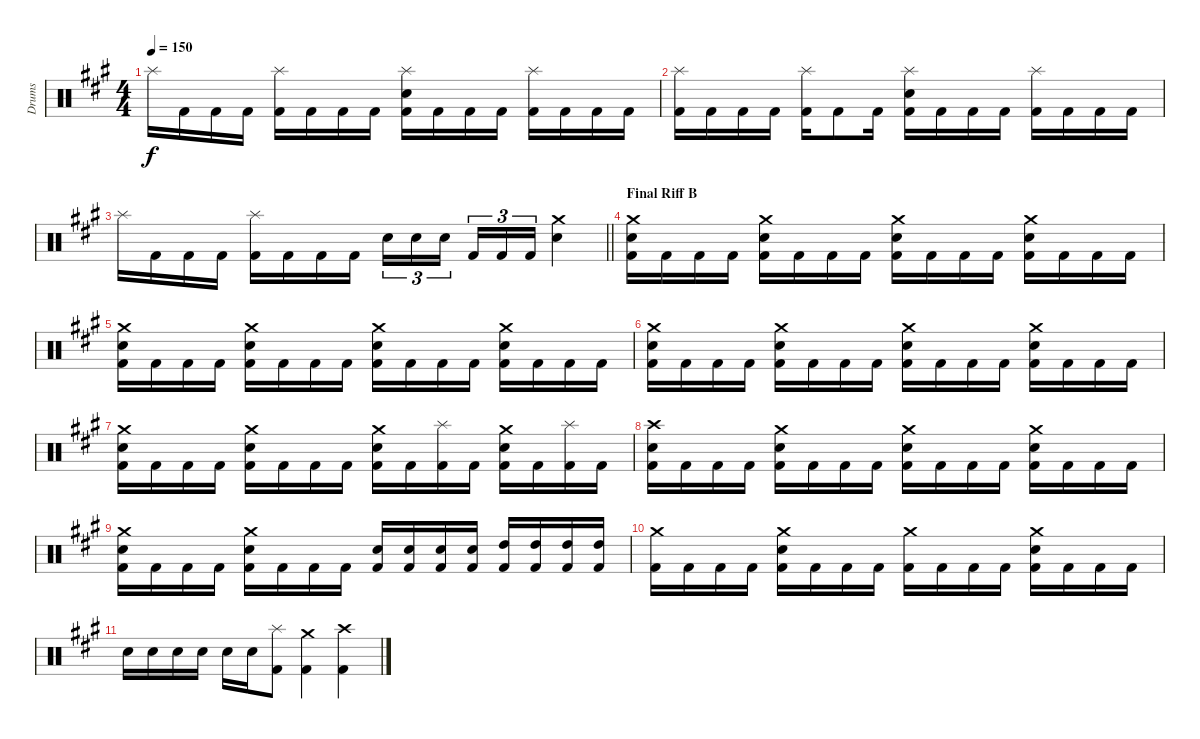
\track ("Drums" "Drums") {instrument percussion}
\staff {score}
\articulation defaults
\ts (4 4)
\tempo 150
\clef neutral
\ks f#minor "Splash (hit)".16{dy f} "Kick (hit) 2".16 "Kick (hit) 2".16 "Kick (hit) 2".16
("Splash (hit)" "Kick (hit) 2").16 "Kick (hit) 2".16 "Kick (hit) 2".16 "Kick (hit) 2".16 ("Splash (hit)" "Snare (hit) 2" "Kick (hit) 2").16 "Kick (hit) 2".16 "Kick (hit) 2".16 "Kick (hit) 2".16 ("Splash (hit)" "Kick (hit) 2").16 "Kick (hit) 2".16 "Kick (hit) 2".16 "Kick (hit) 2".16 |
("Splash (hit)" "Kick (hit) 2").16 "Kick (hit) 2".16 "Kick (hit) 2".16 "Kick (hit) 2".16 ("Splash (hit)" "Kick (hit) 2").16 "Kick (hit) 2".8 "Kick (hit) 2".16 ("Splash (hit)" "Snare (hit) 2" "Kick (hit) 2").16 "Kick (hit) 2".16 "Kick (hit) 2".16 "Kick (hit) 2".16 ("Splash (hit)" "Kick (hit) 2").16 "Kick (hit) 2".16 "Kick (hit) 2".16 "Kick (hit) 2".16 |
\barLineRight lightlight "Splash (hit)".16 "Kick (hit) 2".16 "Kick (hit) 2".16 "Kick (hit) 2".16
("Splash (hit)" "Kick (hit) 2").16 "Kick (hit) 2".16 "Kick (hit) 2".16 "Kick (hit) 2".16 "Snare (hit) 2".16{tu (3 2)} "Snare (hit) 2".16{tu (3 2)} "Snare (hit) 2".16{tu (3 2) beam splitsecondary} "Kick (hit) 2".16{tu (3 2)} "Kick (hit) 2".16{tu (3 2)} "Kick (hit) 2".16{tu (3 2)} ("Crash medium (hit)" "Snare (hit) 2").4 |
\section ("" "Final Riff B")
("Crash medium (hit)" "Snare (hit) 2" "Kick (hit) 2").16 "Kick (hit) 2".16 "Kick (hit) 2".16 "Kick (hit) 2".16 ("Crash medium (hit)" "Snare (hit) 2" "Kick (hit) 2").16 "Kick (hit) 2".16 "Kick (hit) 2".16 "Kick (hit) 2".16 ("Crash medium (hit)" "Snare (hit) 2" "Kick (hit) 2").16 "Kick (hit) 2".16 "Kick (hit) 2".16 "Kick (hit) 2".16 ("Crash medium (hit)" "Snare (hit) 2" "Kick (hit) 2").16 "Kick (hit) 2".16 "Kick (hit) 2".16 "Kick (hit) 2".16 |
("Crash medium (hit)" "Snare (hit) 2" "Kick (hit) 2").16 "Kick (hit) 2".16 "Kick (hit) 2".16 "Kick (hit) 2".16 ("Crash medium (hit)" "Snare (hit) 2" "Kick (hit) 2").16 "Kick (hit) 2".16 "Kick (hit) 2".16 "Kick (hit) 2".16 ("Crash medium (hit)" "Snare (hit) 2" "Kick (hit) 2").16 "Kick (hit) 2".16 "Kick (hit) 2".16 "Kick (hit) 2".16 ("Crash medium (hit)" "Snare (hit) 2" "Kick (hit) 2").16 "Kick (hit) 2".16 "Kick (hit) 2".16 "Kick (hit) 2".16 |
("Crash medium (hit)" "Snare (hit) 2" "Kick (hit) 2").16 "Kick (hit) 2".16 "Kick (hit) 2".16 "Kick (hit) 2".16 ("Crash medium (hit)" "Snare (hit) 2" "Kick (hit) 2").16 "Kick (hit) 2".16 "Kick (hit) 2".16 "Kick (hit) 2".16 ("Crash medium (hit)" "Snare (hit) 2" "Kick (hit) 2").16 "Kick (hit) 2".16 "Kick (hit) 2".16 "Kick (hit) 2".16 ("Crash medium (hit)" "Snare (hit) 2" "Kick (hit) 2").16 "Kick (hit) 2".16 "Kick (hit) 2".16 "Kick (hit) 2".16 |
("Crash medium (hit)" "Snare (hit) 2" "Kick (hit) 2").16 "Kick (hit) 2".16 "Kick (hit) 2".16 "Kick (hit) 2".16 ("Crash medium (hit)" "Snare (hit) 2" "Kick (hit) 2").16 "Kick (hit) 2".16 "Kick (hit) 2".16 "Kick (hit) 2".16 ("Crash medium (hit)" "Snare (hit) 2" "Kick (hit) 2").16 "Kick (hit) 2".16 ("Splash (hit)" "Kick (hit) 2").16 "Kick (hit) 2".16 ("Crash medium (hit)" "Snare (hit) 2" "Kick (hit) 2").16 "Kick (hit) 2".16 ("Splash (hit)" "Kick (hit) 2").16 "Kick (hit) 2".16 |
("Crash high (hit)" "Snare (hit) 2" "Kick (hit) 2").16 "Kick (hit) 2".16 "Kick (hit) 2".16 "Kick (hit) 2".16 ("Crash medium (hit)" "Snare (hit) 2" "Kick (hit) 2").16 "Kick (hit) 2".16 "Kick (hit) 2".16 "Kick (hit) 2".16 ("Crash medium (hit)" "Snare (hit) 2" "Kick (hit) 2").16 "Kick (hit) 2".16 "Kick (hit) 2".16 "Kick (hit) 2".16 ("Crash medium (hit)" "Snare (hit) 2" "Kick (hit) 2").16 "Kick (hit) 2".16 "Kick (hit) 2".16 "Kick (hit) 2".16 |
("Crash medium (hit)" "Snare (hit) 2" "Kick (hit) 2").16 "Kick (hit) 2".16 "Kick (hit) 2".16 "Kick (hit) 2".16 ("Crash medium (hit)" "Snare (hit) 2" "Kick (hit) 2").16 "Kick (hit) 2".16 "Kick (hit) 2".16 "Kick (hit) 2".16 ("Snare (hit) 2" "Kick (hit) 2").16 ("Snare (hit) 2" "Kick (hit) 2").16 ("Snare (hit) 2" "Kick (hit) 2").16 ("Snare (hit) 2" "Kick (hit) 2").16 ("High Tom (hit)" "Kick (hit) 2").16 ("High Tom (hit)" "Kick (hit) 2").16 ("High Tom (hit)" "Kick (hit) 2").16 ("High Tom (hit)" "Kick (hit) 2").16 |
("Crash medium (hit)" "Kick (hit) 2").16 "Kick (hit) 2".16 "Kick (hit) 2".16 "Kick (hit) 2".16 ("Crash medium (hit)" "Snare (hit) 2" "Kick (hit) 2").16 "Kick (hit) 2".16 "Kick (hit) 2".16 "Kick (hit) 2".16 ("Crash medium (hit)" "Kick (hit) 2").16 "Kick (hit) 2".16 "Kick (hit) 2".16 "Kick (hit) 2".16 ("Crash medium (hit)" "Snare (hit) 2" "Kick (hit) 2").16 "Kick (hit) 2".16 "Kick (hit) 2".16 "Kick (hit) 2".16 |
"Snare (hit) 2".16 "Snare (hit) 2".16 "Snare (hit) 2".16 "Snare (hit) 2".16 "Snare (hit) 2".16 "Snare (hit) 2".16 ("Splash (hit)" "Kick (hit) 2").8 ("Crash medium (hit)" "Kick (hit) 2").4 ("Crash high (hit)" "Kick (hit) 2").4
